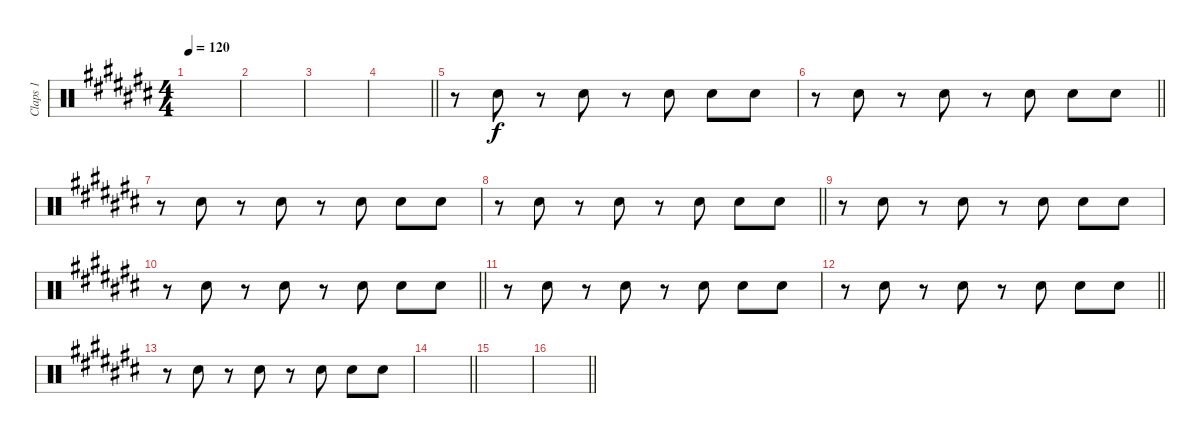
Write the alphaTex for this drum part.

\track ("Claps 1" "Claps 1") {instrument percussion}
\staff {score}
\articulation defaults
\ts (4 4)
\tempo 120
\clef neutral
\ks c#
|
|
|
\barLineRight lightlight
|
r.8 "Hand Clap (hit)".8 r.8 "Hand Clap (hit)".8 r.8 "Hand Clap (hit)".8 "Hand Clap (hit)".8 "Hand Clap (hit)".8 |
\barLineRight lightlight
r.8 "Hand Clap (hit)".8 r.8 "Hand Clap (hit)".8 r.8 "Hand Clap (hit)".8 "Hand Clap (hit)".8 "Hand Clap (hit)".8 |
r.8 "Hand Clap (hit)".8 r.8 "Hand Clap (hit)".8 r.8 "Hand Clap (hit)".8 "Hand Clap (hit)".8 "Hand Clap (hit)".8 |
\barLineRight lightlight
r.8 "Hand Clap (hit)".8 r.8 "Hand Clap (hit)".8 r.8 "Hand Clap (hit)".8 "Hand Clap (hit)".8 "Hand Clap (hit)".8 |
r.8 "Hand Clap (hit)".8 r.8 "Hand Clap (hit)".8 r.8 "Hand Clap (hit)".8 "Hand Clap (hit)".8 "Hand Clap (hit)".8 |
\barLineRight lightlight
r.8 "Hand Clap (hit)".8 r.8 "Hand Clap (hit)".8 r.8 "Hand Clap (hit)".8 "Hand Clap (hit)".8 "Hand Clap (hit)".8 |
r.8 "Hand Clap (hit)".8 r.8 "Hand Clap (hit)".8 r.8 "Hand Clap (hit)".8 "Hand Clap (hit)".8 "Hand Clap (hit)".8 |
\barLineRight lightlight
r.8 "Hand Clap (hit)".8 r.8 "Hand Clap (hit)".8 r.8 "Hand Clap (hit)".8 "Hand Clap (hit)".8 "Hand Clap (hit)".8 |
r.8 "Hand Clap (hit)".8 r.8 "Hand Clap (hit)".8 r.8 "Hand Clap (hit)".8 "Hand Clap (hit)".8 "Hand Clap (hit)".8 |
\barLineRight lightlight
|
|
\barLineRight lightlight
